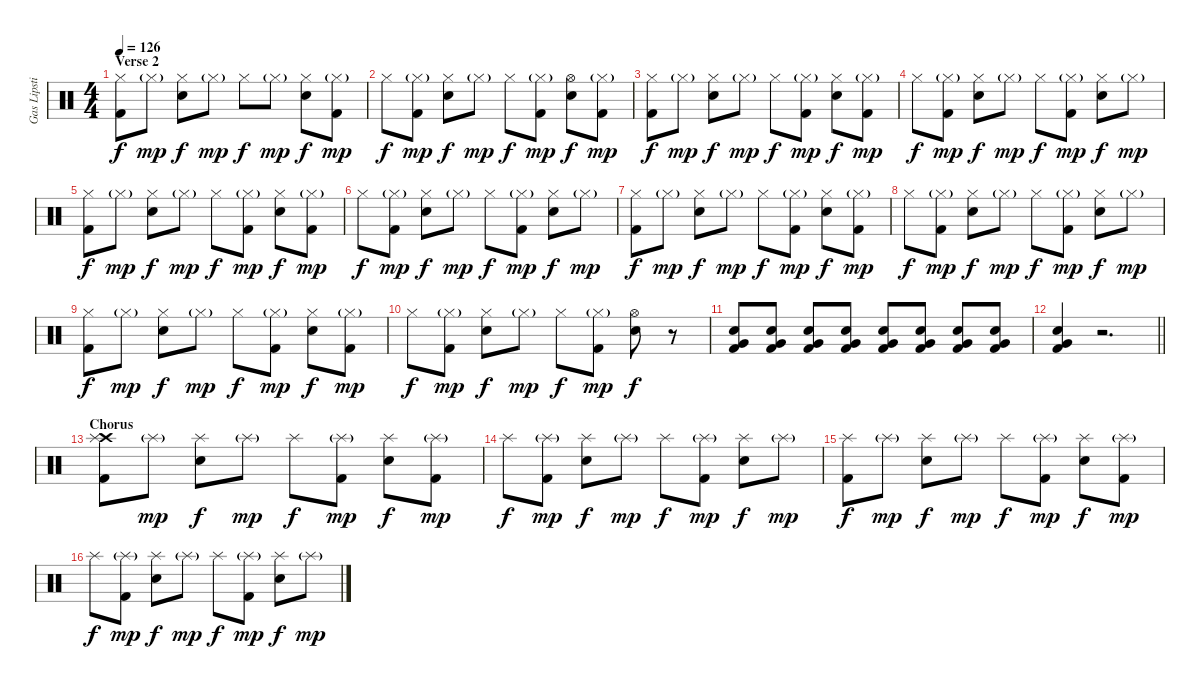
\track ("Gas Lipstick (Drums)" "Gas Lipsti") {instrument percussion}
\staff {score}
\articulation defaults
\ts (4 4)
\section ("" "Verse 2")
\tempo 126
\clef neutral
\ks c
("Hi-Hat (closed)" "Kick (hit) 2").8{dy f} "Hi-Hat (closed)"{g}.8{dy mp} ("Hi-Hat (closed)" "Snare (hit) 2").8{dy f} "Hi-Hat (closed)"{g}.8{dy mp} "Hi-Hat (closed)".8{dy f} "Hi-Hat (closed)"{g}.8{dy mp} ("Hi-Hat (closed)" "Snare (hit) 2").8{dy f} ("Hi-Hat (closed)"{g} "Kick (hit) 2").8{dy mp} |
"Hi-Hat (closed)".8{dy f} ("Hi-Hat (closed)"{g} "Kick (hit) 2").8{dy mp} ("Hi-Hat (closed)" "Snare (hit) 2").8{dy f} "Hi-Hat (closed)"{g}.8{dy mp} "Hi-Hat (closed)".8{dy f} ("Hi-Hat (closed)"{g} "Kick (hit) 2").8{dy mp} ("Hi-Hat (open)" "Snare (hit) 2").8{dy f} ("Hi-Hat (closed)"{g} "Kick (hit) 2").8{dy mp} |
("Hi-Hat (closed)" "Kick (hit) 2").8{dy f} "Hi-Hat (closed)"{g}.8{dy mp} ("Hi-Hat (closed)" "Snare (hit) 2").8{dy f} "Hi-Hat (closed)"{g}.8{dy mp} "Hi-Hat (closed)".8{dy f} ("Hi-Hat (closed)"{g} "Kick (hit) 2").8{dy mp} ("Hi-Hat (closed)" "Snare (hit) 2").8{dy f} ("Hi-Hat (closed)"{g} "Kick (hit) 2").8{dy mp} |
"Hi-Hat (closed)".8{dy f} ("Hi-Hat (closed)"{g} "Kick (hit) 2").8{dy mp} ("Hi-Hat (closed)" "Snare (hit) 2").8{dy f} "Hi-Hat (closed)"{g}.8{dy mp} "Hi-Hat (closed)".8{dy f} ("Hi-Hat (closed)"{g} "Kick (hit) 2").8{dy mp} ("Hi-Hat (closed)" "Snare (hit) 2").8{dy f} "Hi-Hat (closed)"{g}.8{dy mp} |
("Hi-Hat (closed)" "Kick (hit) 2").8{dy f} "Hi-Hat (closed)"{g}.8{dy mp} ("Hi-Hat (closed)" "Snare (hit) 2").8{dy f} "Hi-Hat (closed)"{g}.8{dy mp} "Hi-Hat (closed)".8{dy f} ("Hi-Hat (closed)"{g} "Kick (hit) 2").8{dy mp} ("Hi-Hat (closed)" "Snare (hit) 2").8{dy f} ("Hi-Hat (closed)"{g} "Kick (hit) 2").8{dy mp} |
"Hi-Hat (closed)".8{dy f} ("Hi-Hat (closed)"{g} "Kick (hit) 2").8{dy mp} ("Hi-Hat (closed)" "Snare (hit) 2").8{dy f} "Hi-Hat (closed)"{g}.8{dy mp} "Hi-Hat (closed)".8{dy f} ("Hi-Hat (closed)"{g} "Kick (hit) 2").8{dy mp} ("Hi-Hat (closed)" "Snare (hit) 2").8{dy f} "Hi-Hat (closed)"{g}.8{dy mp} |
("Hi-Hat (closed)" "Kick (hit) 2").8{dy f} "Hi-Hat (closed)"{g}.8{dy mp} ("Hi-Hat (closed)" "Snare (hit) 2").8{dy f} "Hi-Hat (closed)"{g}.8{dy mp} "Hi-Hat (closed)".8{dy f} ("Hi-Hat (closed)"{g} "Kick (hit) 2").8{dy mp} ("Hi-Hat (closed)" "Snare (hit) 2").8{dy f} ("Hi-Hat (closed)"{g} "Kick (hit) 2").8{dy mp} |
"Hi-Hat (closed)".8{dy f} ("Hi-Hat (closed)"{g} "Kick (hit) 2").8{dy mp} ("Hi-Hat (closed)" "Snare (hit) 2").8{dy f} "Hi-Hat (closed)"{g}.8{dy mp} "Hi-Hat (closed)".8{dy f} ("Hi-Hat (closed)"{g} "Kick (hit) 2").8{dy mp} ("Hi-Hat (closed)" "Snare (hit) 2").8{dy f} "Hi-Hat (closed)"{g}.8{dy mp} |
("Hi-Hat (closed)" "Kick (hit) 2").8{dy f} "Hi-Hat (closed)"{g}.8{dy mp} ("Hi-Hat (closed)" "Snare (hit) 2").8{dy f} "Hi-Hat (closed)"{g}.8{dy mp} "Hi-Hat (closed)".8{dy f} ("Hi-Hat (closed)"{g} "Kick (hit) 2").8{dy mp} ("Hi-Hat (closed)" "Snare (hit) 2").8{dy f} ("Hi-Hat (closed)"{g} "Kick (hit) 2").8{dy mp} |
"Hi-Hat (closed)".8{dy f} ("Hi-Hat (closed)"{g} "Kick (hit) 2").8{dy mp} ("Hi-Hat (closed)" "Snare (hit) 2").8{dy f} "Hi-Hat (closed)"{g}.8{dy mp} "Hi-Hat (closed)".8{dy f} ("Hi-Hat (closed)"{g} "Kick (hit) 2").8{dy mp} ("Hi-Hat (open)" "Snare (hit) 2").8{dy f} r.8 |
("Very Low Tom (hit)" "Snare (hit) 2" "Kick (hit) 2").8 ("Very Low Tom (hit)" "Snare (hit) 2" "Kick (hit) 2").8 ("Very Low Tom (hit)" "Snare (hit) 2" "Kick (hit) 2").8 ("Very Low Tom (hit)" "Snare (hit) 2" "Kick (hit) 2").8 ("Very Low Tom (hit)" "Snare (hit) 2" "Kick (hit) 2").8 ("Very Low Tom (hit)" "Snare (hit) 2" "Kick (hit) 2").8 ("Very Low Tom (hit)" "Snare (hit) 2" "Kick (hit) 2").8 ("Very Low Tom (hit)" "Snare (hit) 2" "Kick (hit) 2").8 |
\barLineRight lightlight
("Very Low Tom (hit)" "Snare (hit) 2" "Kick (hit) 2").4 r.2{d} |
\section ("" "Chorus")
("Crash high (hit)" "Splash (hit)" "Kick (hit) 2").8 "Splash (hit)"{g}.8{dy mp} ("Splash (hit)" "Snare (hit) 2").8{dy f} "Splash (hit)"{g}.8{dy mp} "Splash (hit)".8{dy f} ("Splash (hit)"{g} "Kick (hit) 2").8{dy mp} ("Splash (hit)" "Snare (hit) 2").8{dy f} ("Splash (hit)"{g} "Kick (hit) 2").8{dy mp} |
"Splash (hit)".8{dy f} ("Splash (hit)"{g} "Kick (hit) 2").8{dy mp} ("Splash (hit)" "Snare (hit) 2").8{dy f} "Splash (hit)"{g}.8{dy mp} "Splash (hit)".8{dy f} ("Splash (hit)"{g} "Kick (hit) 2").8{dy mp} ("Splash (hit)" "Snare (hit) 2").8{dy f} "Splash (hit)"{g}.8{dy mp} |
("Splash (hit)" "Kick (hit) 2").8{dy f} "Splash (hit)"{g}.8{dy mp} ("Splash (hit)" "Snare (hit) 2").8{dy f} "Splash (hit)"{g}.8{dy mp} "Splash (hit)".8{dy f} ("Splash (hit)"{g} "Kick (hit) 2").8{dy mp} ("Splash (hit)" "Snare (hit) 2").8{dy f} ("Splash (hit)"{g} "Kick (hit) 2").8{dy mp} |
"Splash (hit)".8{dy f} ("Splash (hit)"{g} "Kick (hit) 2").8{dy mp} ("Splash (hit)" "Snare (hit) 2").8{dy f} "Splash (hit)"{g}.8{dy mp} "Splash (hit)".8{dy f} ("Splash (hit)"{g} "Kick (hit) 2").8{dy mp} ("Splash (hit)" "Snare (hit) 2").8{dy f} "Splash (hit)"{g}.8{dy mp}
